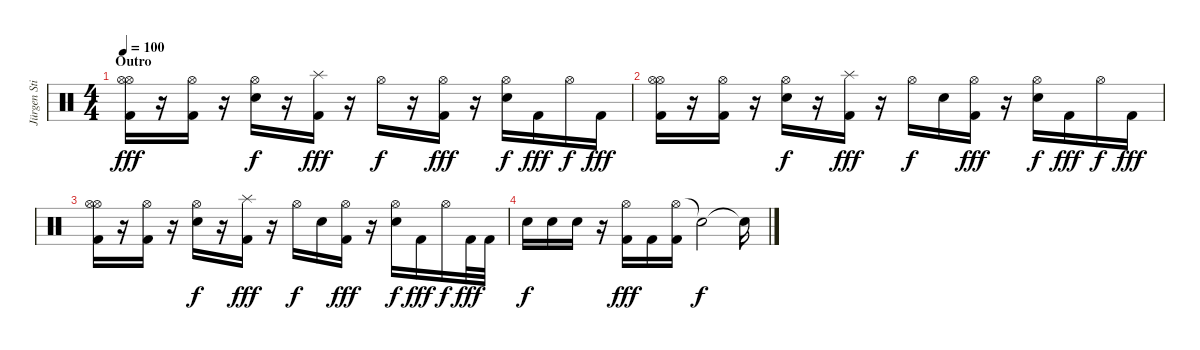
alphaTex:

\track ("Jürgen Stiehle" "Jürgen Sti") {instrument percussion}
\staff {score}
\articulation defaults
\ts (4 4)
\section ("" "Outro")
\tempo 100
\clef neutral
\ks c
("Hi-Hat (open)" "Hi-Hat (open)" "Kick (hit) 2").16{dy fff} r.16 ("Hi-Hat (open)" "Kick (hit) 2").16 r.16 ("Hi-Hat (open)" "Electric Snare (hit)").16{dy f} r.16 ("Splash (hit)" "Kick (hit) 2").16{dy fff} r.16 "Hi-Hat (open)".16{dy f} r.16 ("Hi-Hat (open)" "Kick (hit) 2").16{dy fff} r.16 ("Hi-Hat (open)" "Electric Snare (hit)").16{dy f} "Kick (hit) 2".16{dy fff} "Hi-Hat (open)".16{dy f} "Kick (hit) 2".16{dy fff} |
("Hi-Hat (open)" "Hi-Hat (open)" "Kick (hit) 2").16 r.16 ("Hi-Hat (open)" "Kick (hit) 2").16 r.16 ("Hi-Hat (open)" "Electric Snare (hit)").16{dy f} r.16 ("Splash (hit)" "Kick (hit) 2").16{dy fff} r.16 "Hi-Hat (open)".16{dy f} "Electric Snare (hit)".16 ("Hi-Hat (open)" "Kick (hit) 2").16{dy fff} r.16 ("Hi-Hat (open)" "Electric Snare (hit)").16{dy f} "Kick (hit) 2".16{dy fff} "Hi-Hat (open)".16{dy f} "Kick (hit) 2".16{dy fff} |
("Hi-Hat (open)" "Hi-Hat (open)" "Kick (hit) 2").16 r.16 ("Hi-Hat (open)" "Kick (hit) 2").16 r.16 ("Hi-Hat (open)" "Electric Snare (hit)").16{dy f} r.16 ("Splash (hit)" "Kick (hit) 2").16{dy fff} r.16 "Hi-Hat (open)".16{dy f} "Electric Snare (hit)".16 ("Hi-Hat (open)" "Kick (hit) 2").16{dy fff} r.16 ("Hi-Hat (open)" "Electric Snare (hit)").16{dy f} "Kick (hit) 2".16{dy fff} "Hi-Hat (open)".16{dy f} "Kick (hit) 2".32{dy fff} "Kick (hit) 2".32 |
"Electric Snare (hit)".16{dy f} "Electric Snare (hit)".16 "Electric Snare (hit)".16 r.16 ("Hi-Hat (open)" "Kick (hit) 2").16{dy fff} "Kick (hit) 2".16 ("Hi-Hat (open)" "Kick (hit) 2").16 "Snare (hit)"{t}.2{dy f} "Snare (hit)"{t}.16
